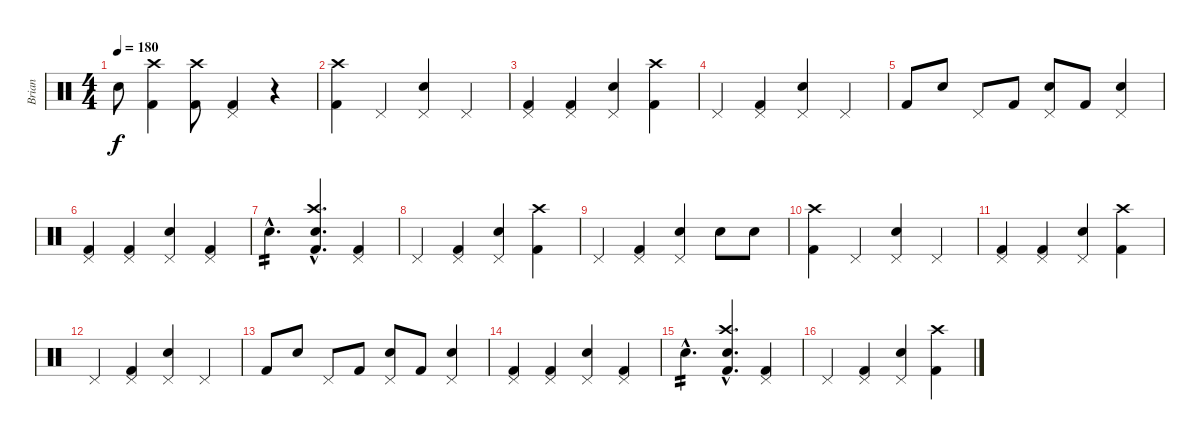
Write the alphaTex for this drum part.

\track ("Brian" "Brian") {instrument percussion}
\staff {score}
\articulation defaults
\ts (4 4)
\tempo 180
\clef neutral
\ks c "Snare (hit) 2".8{dy f}
("Crash high (hit)" "Kick (hit) 2").4 ("Crash high (hit)" "Kick (hit) 2").8 ("Pedal Hi-Hat (hit)" "Kick (hit) 2").4 r.4 |
("Crash high (hit)" "Kick (hit) 2").4 "Pedal Hi-Hat (hit)".4 ("Pedal Hi-Hat (hit)" "Snare (hit) 2").4 "Pedal Hi-Hat (hit)".4 |
("Pedal Hi-Hat (hit)" "Kick (hit) 2").4 ("Pedal Hi-Hat (hit)" "Kick (hit) 2").4 ("Pedal Hi-Hat (hit)" "Snare (hit) 2").4 ("Crash high (hit)" "Kick (hit) 2").4 |
"Pedal Hi-Hat (hit)".4 ("Pedal Hi-Hat (hit)" "Kick (hit) 2").4 ("Pedal Hi-Hat (hit)" "Snare (hit) 2").4 "Pedal Hi-Hat (hit)".4 |
"Kick (hit) 2".8 "Snare (hit) 2".8 "Pedal Hi-Hat (hit)".8 "Kick (hit) 2".8 ("Pedal Hi-Hat (hit)" "Snare (hit) 2").8 "Kick (hit) 2".8 ("Pedal Hi-Hat (hit)" "Snare (hit) 2").4 |
("Pedal Hi-Hat (hit)" "Kick (hit) 2").4 ("Pedal Hi-Hat (hit)" "Kick (hit) 2").4 ("Pedal Hi-Hat (hit)" "Snare (hit) 2").4 ("Pedal Hi-Hat (hit)" "Kick (hit) 2").4 |
"Snare (hit) 2"{hac}.4{d tp 2} ("Crash high (hit)"{hac} "Kick (hit) 2"{hac} "Snare (hit) 2"{hac}).4{d} ("Pedal Hi-Hat (hit)" "Kick (hit) 2").4 |
"Pedal Hi-Hat (hit)".4 ("Pedal Hi-Hat (hit)" "Kick (hit) 2").4 ("Pedal Hi-Hat (hit)" "Snare (hit) 2").4 ("Crash high (hit)" "Kick (hit) 2").4 |
"Pedal Hi-Hat (hit)".4 ("Pedal Hi-Hat (hit)" "Kick (hit) 2").4 ("Pedal Hi-Hat (hit)" "Snare (hit) 2").4 "Snare (hit) 2".8 "Snare (hit) 2".8 |
("Crash high (hit)" "Kick (hit) 2").4 "Pedal Hi-Hat (hit)".4 ("Pedal Hi-Hat (hit)" "Snare (hit) 2").4 "Pedal Hi-Hat (hit)".4 |
("Pedal Hi-Hat (hit)" "Kick (hit) 2").4 ("Pedal Hi-Hat (hit)" "Kick (hit) 2").4 ("Pedal Hi-Hat (hit)" "Snare (hit) 2").4 ("Crash high (hit)" "Kick (hit) 2").4 |
"Pedal Hi-Hat (hit)".4 ("Pedal Hi-Hat (hit)" "Kick (hit) 2").4 ("Pedal Hi-Hat (hit)" "Snare (hit) 2").4 "Pedal Hi-Hat (hit)".4 |
"Kick (hit) 2".8 "Snare (hit) 2".8 "Pedal Hi-Hat (hit)".8 "Kick (hit) 2".8 ("Pedal Hi-Hat (hit)" "Snare (hit) 2").8 "Kick (hit) 2".8 ("Pedal Hi-Hat (hit)" "Snare (hit) 2").4 |
("Pedal Hi-Hat (hit)" "Kick (hit) 2").4 ("Pedal Hi-Hat (hit)" "Kick (hit) 2").4 ("Pedal Hi-Hat (hit)" "Snare (hit) 2").4 ("Pedal Hi-Hat (hit)" "Kick (hit) 2").4 |
"Snare (hit) 2"{hac}.4{d tp 2} ("Crash high (hit)"{hac} "Kick (hit) 2"{hac} "Snare (hit) 2"{hac}).4{d} ("Pedal Hi-Hat (hit)" "Kick (hit) 2").4 |
"Pedal Hi-Hat (hit)".4 ("Pedal Hi-Hat (hit)" "Kick (hit) 2").4 ("Pedal Hi-Hat (hit)" "Snare (hit) 2").4 ("Crash high (hit)" "Kick (hit) 2").4
